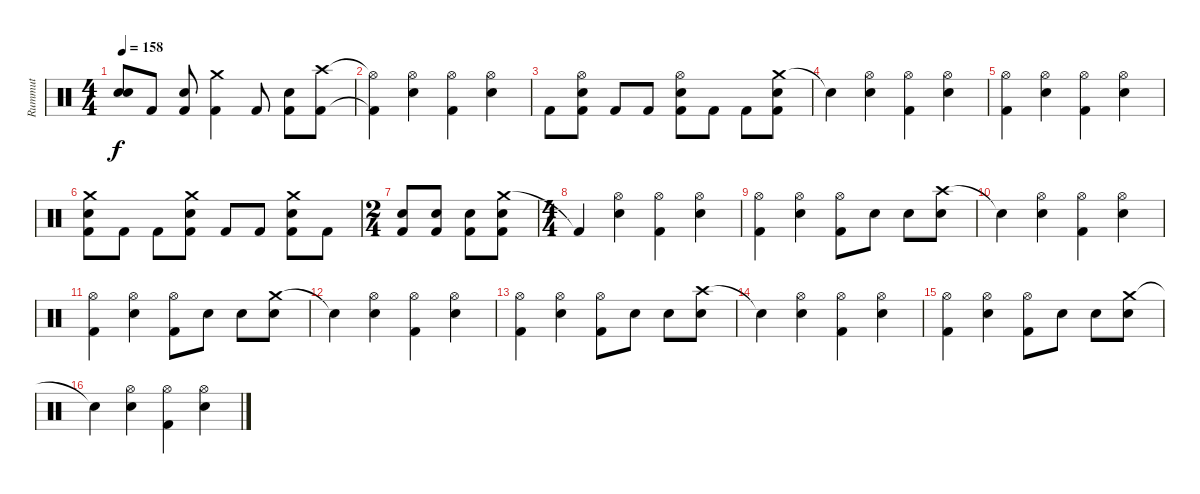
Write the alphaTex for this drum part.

\track ("Rummut" "Rummut") {instrument percussion}
\staff {score}
\articulation defaults
\ts (4 4)
\tempo 158
\clef neutral
\ks c
("Snare (hit)"{t} "Snare (hit)"{t}).8{dy f} "Kick (hit) 2".8 ("Electric Snare (hit)" "Kick (hit) 2").8 ("Crash medium (hit)" "Kick (hit) 2").4 "Kick (hit) 2".8 ("Electric Snare (hit)" "Kick (hit) 2").8 ("Crash high (hit)" "Kick (hit) 2").8 |
("Hi-Hat (open)"{t} "Kick (hit) 2"{t}).4 ("Hi-Hat (open)" "Electric Snare (hit)").4 ("Hi-Hat (open)" "Kick (hit) 2").4 ("Hi-Hat (open)" "Electric Snare (hit)").4 |
"Kick (hit) 2".8 ("Hi-Hat (open)" "Electric Snare (hit)" "Kick (hit) 2").8 "Kick (hit) 2".8 "Kick (hit) 2".8 ("Hi-Hat (open)" "Electric Snare (hit)" "Kick (hit) 2").8 "Kick (hit) 2".8 "Kick (hit) 2".8 ("Crash medium (hit)" "Electric Snare (hit)" "Kick (hit) 2").8 |
"Snare (hit)"{t}.4 ("Hi-Hat (open)" "Electric Snare (hit)").4 ("Hi-Hat (open)" "Kick (hit) 2").4 ("Hi-Hat (open)" "Electric Snare (hit)").4 |
("Hi-Hat (open)" "Kick (hit) 2").4 ("Hi-Hat (open)" "Electric Snare (hit)").4 ("Hi-Hat (open)" "Kick (hit) 2").4 ("Hi-Hat (open)" "Electric Snare (hit)").4 |
("Crash medium (hit)" "Electric Snare (hit)" "Kick (hit) 2").8 "Kick (hit) 2".8 "Kick (hit) 2".8 ("Crash medium (hit)" "Electric Snare (hit)" "Kick (hit) 2").8 "Kick (hit) 2".8 "Kick (hit) 2".8 ("Crash medium (hit)" "Electric Snare (hit)" "Kick (hit) 2").8 "Kick (hit) 2".8 |
\ts (2 4)
("Electric Snare (hit)" "Kick (hit) 2").8 ("Electric Snare (hit)" "Kick (hit) 2").8 ("Electric Snare (hit)" "Kick (hit) 2").8 ("Crash medium (hit)" "Electric Snare (hit)" "Kick (hit) 2").8 |
\ts (4 4)
"Kick (hit) 2"{t}.4 ("Hi-Hat (open)" "Electric Snare (hit)").4 ("Hi-Hat (open)" "Kick (hit) 2").4 ("Hi-Hat (open)" "Electric Snare (hit)").4 |
("Hi-Hat (open)" "Kick (hit) 2").4 ("Hi-Hat (open)" "Electric Snare (hit)").4 ("Hi-Hat (open)" "Kick (hit) 2").8 "Electric Snare (hit)".8 "Electric Snare (hit)".8 ("Crash high (hit)" "Electric Snare (hit)").8 |
"Snare (hit)"{t}.4 ("Hi-Hat (open)" "Electric Snare (hit)").4 ("Hi-Hat (open)" "Kick (hit) 2").4 ("Hi-Hat (open)" "Electric Snare (hit)").4 |
("Hi-Hat (open)" "Kick (hit) 2").4 ("Hi-Hat (open)" "Electric Snare (hit)").4 ("Hi-Hat (open)" "Kick (hit) 2").8 "Electric Snare (hit)".8 "Electric Snare (hit)".8 ("Crash medium (hit)" "Electric Snare (hit)").8 |
"Snare (hit)"{t}.4 ("Hi-Hat (open)" "Electric Snare (hit)").4 ("Hi-Hat (open)" "Kick (hit) 2").4 ("Hi-Hat (open)" "Electric Snare (hit)").4 |
("Hi-Hat (open)" "Kick (hit) 2").4 ("Hi-Hat (open)" "Electric Snare (hit)").4 ("Hi-Hat (open)" "Kick (hit) 2").8 "Electric Snare (hit)".8 "Electric Snare (hit)".8 ("Crash high (hit)" "Electric Snare (hit)").8 |
"Snare (hit)"{t}.4 ("Hi-Hat (open)" "Electric Snare (hit)").4 ("Hi-Hat (open)" "Kick (hit) 2").4 ("Hi-Hat (open)" "Electric Snare (hit)").4 |
("Hi-Hat (open)" "Kick (hit) 2").4 ("Hi-Hat (open)" "Electric Snare (hit)").4 ("Hi-Hat (open)" "Kick (hit) 2").8 "Electric Snare (hit)".8 "Electric Snare (hit)".8 ("Crash medium (hit)" "Electric Snare (hit)").8 |
"Snare (hit)"{t}.4 ("Hi-Hat (open)" "Electric Snare (hit)").4 ("Hi-Hat (open)" "Kick (hit) 2").4 ("Hi-Hat (open)" "Electric Snare (hit)").4
